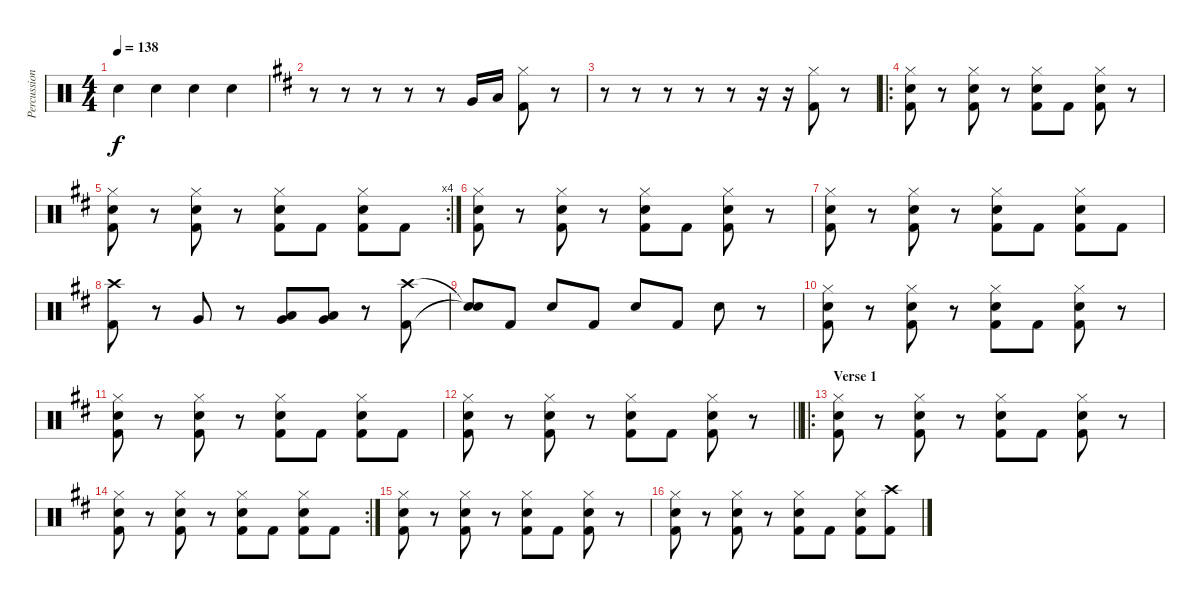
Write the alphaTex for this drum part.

\track ("Percussion" "Percussion") {instrument percussion}
\staff {score}
\articulation defaults
\ts (4 4)
\tempo 138
\clef neutral
\ks c "Hand Clap (hit)".4{dy f} "Hand Clap (hit)".4 "Hand Clap (hit)".4 "Hand Clap (hit)".4
|
\ks d
r.8 r.8 r.8 r.8 r.8 "Very Low Tom (hit)".16 "Low Floor Tom (hit)".16 ("Hi-Hat (closed)" "Kick (hit) 2").8 r.8 |
r.8 r.8 r.8 r.8 r.8 r.16 r.16 ("Hi-Hat (closed)" "Kick (hit) 2").8 r.8 |
\ro
("Hi-Hat (closed)" "Snare (hit) 2" "Kick (hit) 2").8 r.8 ("Hi-Hat (closed)" "Snare (hit) 2" "Kick (hit) 2").8 r.8 ("Hi-Hat (closed)" "Snare (hit) 2" "Kick (hit) 2").8 "Kick (hit) 2".8 ("Hi-Hat (closed)" "Snare (hit) 2" "Kick (hit) 2").8 r.8 |
\rc 4
("Hi-Hat (closed)" "Snare (hit) 2" "Kick (hit) 2").8 r.8 ("Hi-Hat (closed)" "Snare (hit) 2" "Kick (hit) 2").8 r.8 ("Hi-Hat (closed)" "Snare (hit) 2" "Kick (hit) 2").8 "Kick (hit) 2".8 ("Hi-Hat (closed)" "Snare (hit) 2" "Kick (hit) 2").8 "Kick (hit) 2".8 |
("Hi-Hat (closed)" "Snare (hit) 2" "Kick (hit) 2").8 r.8 ("Hi-Hat (closed)" "Snare (hit) 2" "Kick (hit) 2").8 r.8 ("Hi-Hat (closed)" "Snare (hit) 2" "Kick (hit) 2").8 "Kick (hit) 2".8 ("Hi-Hat (closed)" "Snare (hit) 2" "Kick (hit) 2").8 r.8 |
("Hi-Hat (closed)" "Snare (hit) 2" "Kick (hit) 2").8 r.8 ("Hi-Hat (closed)" "Snare (hit) 2" "Kick (hit) 2").8 r.8 ("Hi-Hat (closed)" "Snare (hit) 2" "Kick (hit) 2").8 "Kick (hit) 2".8 ("Hi-Hat (closed)" "Snare (hit) 2" "Kick (hit) 2").8 "Kick (hit) 2".8 |
("Crash high (hit)" "Kick (hit) 2").8 r.8 "Very Low Tom (hit)".8 r.8 ("Very Low Tom (hit)" "Low Floor Tom (hit)").8 ("Very Low Tom (hit)" "Low Floor Tom (hit)").8 r.8 ("Crash high (hit)" "Kick (hit) 2").8 |
("Snare (hit)"{t} "Snare (hit)"{t}).8 "Kick (hit) 2".8 "Snare (hit) 2".8 "Kick (hit) 2".8 "Snare (hit) 2".8 "Kick (hit) 2".8 "Snare (hit) 2".8 r.8 |
("Hi-Hat (closed)" "Snare (hit) 2" "Kick (hit) 2").8 r.8 ("Hi-Hat (closed)" "Snare (hit) 2" "Kick (hit) 2").8 r.8 ("Hi-Hat (closed)" "Snare (hit) 2" "Kick (hit) 2").8 "Kick (hit) 2".8 ("Hi-Hat (closed)" "Snare (hit) 2" "Kick (hit) 2").8 r.8 |
("Hi-Hat (closed)" "Snare (hit) 2" "Kick (hit) 2").8 r.8 ("Hi-Hat (closed)" "Snare (hit) 2" "Kick (hit) 2").8 r.8 ("Hi-Hat (closed)" "Snare (hit) 2" "Kick (hit) 2").8 "Kick (hit) 2".8 ("Hi-Hat (closed)" "Snare (hit) 2" "Kick (hit) 2").8 "Kick (hit) 2".8 |
\barLineRight lightlight
("Hi-Hat (closed)" "Snare (hit) 2" "Kick (hit) 2").8 r.8 ("Hi-Hat (closed)" "Snare (hit) 2" "Kick (hit) 2").8 r.8 ("Hi-Hat (closed)" "Snare (hit) 2" "Kick (hit) 2").8 "Kick (hit) 2".8 ("Hi-Hat (closed)" "Snare (hit) 2" "Kick (hit) 2").8 r.8 |
\ro
\section ("" "Verse 1")
("Hi-Hat (closed)" "Snare (hit) 2" "Kick (hit) 2").8 r.8 ("Hi-Hat (closed)" "Snare (hit) 2" "Kick (hit) 2").8 r.8 ("Hi-Hat (closed)" "Snare (hit) 2" "Kick (hit) 2").8 "Kick (hit) 2".8 ("Hi-Hat (closed)" "Snare (hit) 2" "Kick (hit) 2").8 r.8 |
\rc 2
("Hi-Hat (closed)" "Snare (hit) 2" "Kick (hit) 2").8 r.8 ("Hi-Hat (closed)" "Snare (hit) 2" "Kick (hit) 2").8 r.8 ("Hi-Hat (closed)" "Snare (hit) 2" "Kick (hit) 2").8 "Kick (hit) 2".8 ("Hi-Hat (closed)" "Snare (hit) 2" "Kick (hit) 2").8 "Kick (hit) 2".8 |
("Hi-Hat (closed)" "Snare (hit) 2" "Kick (hit) 2").8 r.8 ("Hi-Hat (closed)" "Snare (hit) 2" "Kick (hit) 2").8 r.8 ("Hi-Hat (closed)" "Snare (hit) 2" "Kick (hit) 2").8 "Kick (hit) 2".8 ("Hi-Hat (closed)" "Snare (hit) 2" "Kick (hit) 2").8 r.8 |
("Hi-Hat (closed)" "Snare (hit) 2" "Kick (hit) 2").8 r.8 ("Hi-Hat (closed)" "Snare (hit) 2" "Kick (hit) 2").8 r.8 ("Hi-Hat (closed)" "Snare (hit) 2" "Kick (hit) 2").8 "Kick (hit) 2".8 ("Hi-Hat (closed)" "Snare (hit) 2" "Kick (hit) 2").8 ("Crash high (hit)" "Kick (hit) 2").8
